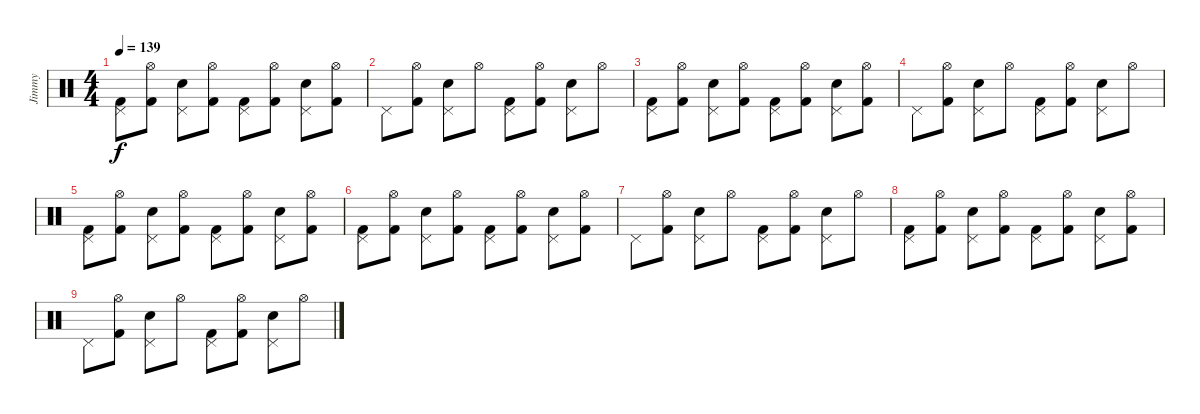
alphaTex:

\track ("Jimmy" "Jimmy") {instrument percussion}
\staff {score}
\articulation defaults
\ts (4 4)
\tempo 139
\clef neutral
\ks c
("Pedal Hi-Hat (hit)" "Kick (hit) 2").8{dy f} ("Hi-Hat (open)" "Kick (hit) 2").8 ("Pedal Hi-Hat (hit)" "Snare (hit) 2").8 ("Hi-Hat (open)" "Kick (hit) 2").8 ("Pedal Hi-Hat (hit)" "Kick (hit) 2").8 ("Hi-Hat (open)" "Kick (hit) 2").8 ("Pedal Hi-Hat (hit)" "Snare (hit) 2").8 ("Hi-Hat (open)" "Kick (hit) 2").8 |
"Pedal Hi-Hat (hit)".8 ("Hi-Hat (open)" "Kick (hit) 2").8 ("Pedal Hi-Hat (hit)" "Snare (hit) 2").8 "Hi-Hat (open)".8 ("Pedal Hi-Hat (hit)" "Kick (hit) 2").8 ("Hi-Hat (open)" "Kick (hit) 2").8 ("Pedal Hi-Hat (hit)" "Snare (hit) 2").8 "Hi-Hat (open)".8 |
("Pedal Hi-Hat (hit)" "Kick (hit) 2").8 ("Hi-Hat (open)" "Kick (hit) 2").8 ("Pedal Hi-Hat (hit)" "Snare (hit) 2").8 ("Hi-Hat (open)" "Kick (hit) 2").8 ("Pedal Hi-Hat (hit)" "Kick (hit) 2").8 ("Hi-Hat (open)" "Kick (hit) 2").8 ("Pedal Hi-Hat (hit)" "Snare (hit) 2").8 ("Hi-Hat (open)" "Kick (hit) 2").8 |
"Pedal Hi-Hat (hit)".8 ("Hi-Hat (open)" "Kick (hit) 2").8 ("Pedal Hi-Hat (hit)" "Snare (hit) 2").8 "Hi-Hat (open)".8 ("Pedal Hi-Hat (hit)" "Kick (hit) 2").8 ("Hi-Hat (open)" "Kick (hit) 2").8 ("Pedal Hi-Hat (hit)" "Snare (hit) 2").8 "Hi-Hat (open)".8 |
("Pedal Hi-Hat (hit)" "Kick (hit) 2").8 ("Hi-Hat (open)" "Kick (hit) 2").8 ("Pedal Hi-Hat (hit)" "Snare (hit) 2").8 ("Hi-Hat (open)" "Kick (hit) 2").8 ("Pedal Hi-Hat (hit)" "Kick (hit) 2").8 ("Hi-Hat (open)" "Kick (hit) 2").8 ("Pedal Hi-Hat (hit)" "Snare (hit) 2").8 ("Hi-Hat (open)" "Kick (hit) 2").8 |
("Pedal Hi-Hat (hit)" "Kick (hit) 2").8 ("Hi-Hat (open)" "Kick (hit) 2").8 ("Pedal Hi-Hat (hit)" "Snare (hit) 2").8 ("Hi-Hat (open)" "Kick (hit) 2").8 ("Pedal Hi-Hat (hit)" "Kick (hit) 2").8 ("Hi-Hat (open)" "Kick (hit) 2").8 ("Pedal Hi-Hat (hit)" "Snare (hit) 2").8 ("Hi-Hat (open)" "Kick (hit) 2").8 |
"Pedal Hi-Hat (hit)".8 ("Hi-Hat (open)" "Kick (hit) 2").8 ("Pedal Hi-Hat (hit)" "Snare (hit) 2").8 "Hi-Hat (open)".8 ("Pedal Hi-Hat (hit)" "Kick (hit) 2").8 ("Hi-Hat (open)" "Kick (hit) 2").8 ("Pedal Hi-Hat (hit)" "Snare (hit) 2").8 "Hi-Hat (open)".8 |
("Pedal Hi-Hat (hit)" "Kick (hit) 2").8 ("Hi-Hat (open)" "Kick (hit) 2").8 ("Pedal Hi-Hat (hit)" "Snare (hit) 2").8 ("Hi-Hat (open)" "Kick (hit) 2").8 ("Pedal Hi-Hat (hit)" "Kick (hit) 2").8 ("Hi-Hat (open)" "Kick (hit) 2").8 ("Pedal Hi-Hat (hit)" "Snare (hit) 2").8 ("Hi-Hat (open)" "Kick (hit) 2").8 |
"Pedal Hi-Hat (hit)".8 ("Hi-Hat (open)" "Kick (hit) 2").8 ("Pedal Hi-Hat (hit)" "Snare (hit) 2").8 "Hi-Hat (open)".8 ("Pedal Hi-Hat (hit)" "Kick (hit) 2").8 ("Hi-Hat (open)" "Kick (hit) 2").8 ("Pedal Hi-Hat (hit)" "Snare (hit) 2").8 "Hi-Hat (open)".8
